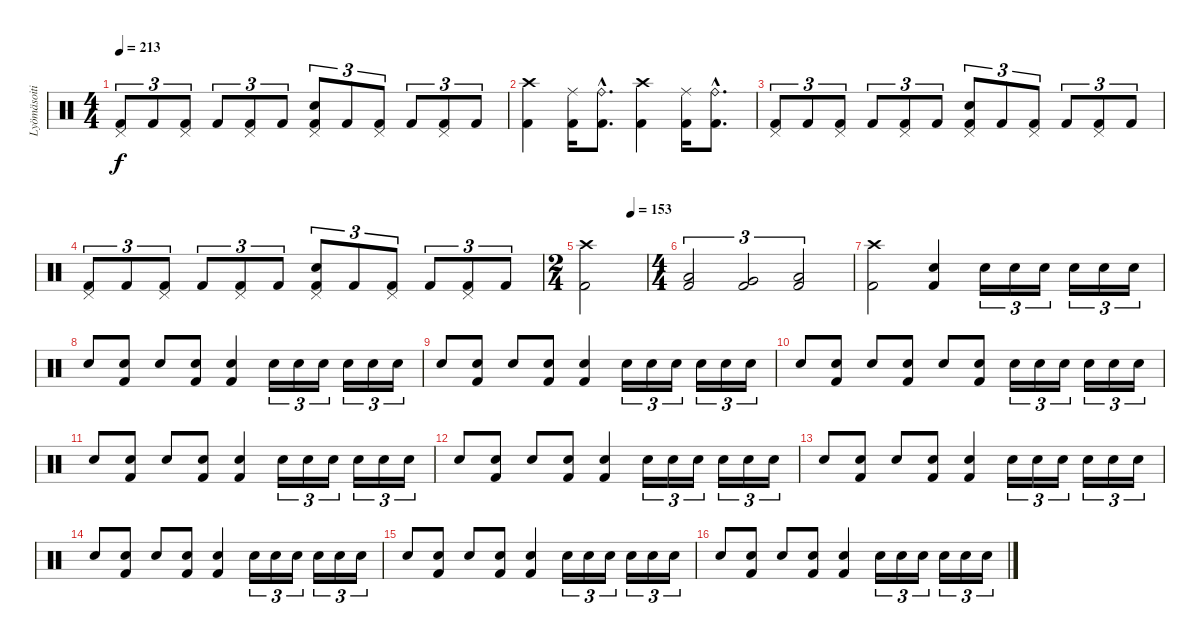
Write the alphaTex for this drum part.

\track ("Lyömäsoitin" "Lyömäsoiti") {instrument percussion}
\staff {score}
\articulation defaults
\ts (4 4)
\tempo 213
\clef neutral
\ks c
("Pedal Hi-Hat (hit)" "Kick (hit) 2").8{tu (3 2) dy f} "Kick (hit) 2".8{tu (3 2)} ("Pedal Hi-Hat (hit)" "Kick (hit) 2").8{tu (3 2)} "Kick (hit) 2".8{tu (3 2)} ("Pedal Hi-Hat (hit)" "Kick (hit) 2").8{tu (3 2)} "Kick (hit) 2".8{tu (3 2)} ("Pedal Hi-Hat (hit)" "Electric Snare (hit)" "Kick (hit) 2").8{tu (3 2)} "Kick (hit) 2".8{tu (3 2)} ("Pedal Hi-Hat (hit)" "Kick (hit) 2").8{tu (3 2)} "Kick (hit) 2".8{tu (3 2)} ("Pedal Hi-Hat (hit)" "Kick (hit) 2").8{tu (3 2)} "Kick (hit) 2".8{tu (3 2)} |
("Crash high (hit)" "Kick (hit) 2").4 ("Ride (middle)" "Kick (hit) 2").16 ("Ride (bell)"{hac} "Kick (hit) 2"{hac}).8{d} ("Crash high (hit)" "Kick (hit) 2").4 ("Ride (middle)" "Kick (hit) 2").16 ("Ride (bell)"{hac} "Kick (hit) 2"{hac}).8{d} |
("Pedal Hi-Hat (hit)" "Kick (hit) 2").8{tu (3 2)} "Kick (hit) 2".8{tu (3 2)} ("Pedal Hi-Hat (hit)" "Kick (hit) 2").8{tu (3 2)} "Kick (hit) 2".8{tu (3 2)} ("Pedal Hi-Hat (hit)" "Kick (hit) 2").8{tu (3 2)} "Kick (hit) 2".8{tu (3 2)} ("Pedal Hi-Hat (hit)" "Electric Snare (hit)" "Kick (hit) 2").8{tu (3 2)} "Kick (hit) 2".8{tu (3 2)} ("Pedal Hi-Hat (hit)" "Kick (hit) 2").8{tu (3 2)} "Kick (hit) 2".8{tu (3 2)} ("Pedal Hi-Hat (hit)" "Kick (hit) 2").8{tu (3 2)} "Kick (hit) 2".8{tu (3 2)} |
("Pedal Hi-Hat (hit)" "Kick (hit) 2").8{tu (3 2)} "Kick (hit) 2".8{tu (3 2)} ("Pedal Hi-Hat (hit)" "Kick (hit) 2").8{tu (3 2)} "Kick (hit) 2".8{tu (3 2)} ("Pedal Hi-Hat (hit)" "Kick (hit) 2").8{tu (3 2)} "Kick (hit) 2".8{tu (3 2)} ("Pedal Hi-Hat (hit)" "Electric Snare (hit)" "Kick (hit) 2").8{tu (3 2)} "Kick (hit) 2".8{tu (3 2)} ("Pedal Hi-Hat (hit)" "Kick (hit) 2").8{tu (3 2)} "Kick (hit) 2".8{tu (3 2)} ("Pedal Hi-Hat (hit)" "Kick (hit) 2").8{tu (3 2)} "Kick (hit) 2".8{tu (3 2)} |
\ts (2 4)
\tempo (153 0.75)
("Crash high (hit)" "Kick (hit) 2").2 |
\ts (4 4)
("Low Tom (hit)" "Kick (hit) 2").2{tu (3 2)} ("Very Low Tom (hit)" "Kick (hit) 2").2{tu (3 2)} ("Low Floor Tom (hit)" "Kick (hit) 2").2{tu (3 2)} |
("Crash high (hit)" "Kick (hit) 2").2 ("Electric Snare (hit)" "Kick (hit) 2").4 "Electric Snare (hit)".16{tu (3 2)} "Electric Snare (hit)".16{tu (3 2)} "Electric Snare (hit)".16{tu (3 2)} "Electric Snare (hit)".16{tu (3 2)} "Electric Snare (hit)".16{tu (3 2)} "Electric Snare (hit)".16{tu (3 2)} |
"Electric Snare (hit)".8 ("Electric Snare (hit)" "Kick (hit) 2").8 "Electric Snare (hit)".8 ("Electric Snare (hit)" "Kick (hit) 2").8 ("Electric Snare (hit)" "Kick (hit) 2").4 "Electric Snare (hit)".16{tu (3 2)} "Electric Snare (hit)".16{tu (3 2)} "Electric Snare (hit)".16{tu (3 2)} "Electric Snare (hit)".16{tu (3 2)} "Electric Snare (hit)".16{tu (3 2)} "Electric Snare (hit)".16{tu (3 2)} |
"Electric Snare (hit)".8 ("Electric Snare (hit)" "Kick (hit) 2").8 "Electric Snare (hit)".8 ("Electric Snare (hit)" "Kick (hit) 2").8 ("Electric Snare (hit)" "Kick (hit) 2").4 "Electric Snare (hit)".16{tu (3 2)} "Electric Snare (hit)".16{tu (3 2)} "Electric Snare (hit)".16{tu (3 2)} "Electric Snare (hit)".16{tu (3 2)} "Electric Snare (hit)".16{tu (3 2)} "Electric Snare (hit)".16{tu (3 2)} |
"Electric Snare (hit)".8 ("Electric Snare (hit)" "Kick (hit) 2").8 "Electric Snare (hit)".8 ("Electric Snare (hit)" "Kick (hit) 2").8 "Electric Snare (hit)".8 ("Electric Snare (hit)" "Kick (hit) 2").8 "Electric Snare (hit)".16{tu (3 2)} "Electric Snare (hit)".16{tu (3 2)} "Electric Snare (hit)".16{tu (3 2)} "Electric Snare (hit)".16{tu (3 2)} "Electric Snare (hit)".16{tu (3 2)} "Electric Snare (hit)".16{tu (3 2)} |
"Electric Snare (hit)".8 ("Electric Snare (hit)" "Kick (hit) 2").8 "Electric Snare (hit)".8 ("Electric Snare (hit)" "Kick (hit) 2").8 ("Electric Snare (hit)" "Kick (hit) 2").4 "Electric Snare (hit)".16{tu (3 2)} "Electric Snare (hit)".16{tu (3 2)} "Electric Snare (hit)".16{tu (3 2)} "Electric Snare (hit)".16{tu (3 2)} "Electric Snare (hit)".16{tu (3 2)} "Electric Snare (hit)".16{tu (3 2)} |
"Electric Snare (hit)".8 ("Electric Snare (hit)" "Kick (hit) 2").8 "Electric Snare (hit)".8 ("Electric Snare (hit)" "Kick (hit) 2").8 ("Electric Snare (hit)" "Kick (hit) 2").4 "Electric Snare (hit)".16{tu (3 2)} "Electric Snare (hit)".16{tu (3 2)} "Electric Snare (hit)".16{tu (3 2)} "Electric Snare (hit)".16{tu (3 2)} "Electric Snare (hit)".16{tu (3 2)} "Electric Snare (hit)".16{tu (3 2)} |
"Electric Snare (hit)".8 ("Electric Snare (hit)" "Kick (hit) 2").8 "Electric Snare (hit)".8 ("Electric Snare (hit)" "Kick (hit) 2").8 ("Electric Snare (hit)" "Kick (hit) 2").4 "Electric Snare (hit)".16{tu (3 2)} "Electric Snare (hit)".16{tu (3 2)} "Electric Snare (hit)".16{tu (3 2)} "Electric Snare (hit)".16{tu (3 2)} "Electric Snare (hit)".16{tu (3 2)} "Electric Snare (hit)".16{tu (3 2)} |
"Electric Snare (hit)".8 ("Electric Snare (hit)" "Kick (hit) 2").8 "Electric Snare (hit)".8 ("Electric Snare (hit)" "Kick (hit) 2").8 ("Electric Snare (hit)" "Kick (hit) 2").4 "Electric Snare (hit)".16{tu (3 2)} "Electric Snare (hit)".16{tu (3 2)} "Electric Snare (hit)".16{tu (3 2)} "Electric Snare (hit)".16{tu (3 2)} "Electric Snare (hit)".16{tu (3 2)} "Electric Snare (hit)".16{tu (3 2)} |
"Electric Snare (hit)".8 ("Electric Snare (hit)" "Kick (hit) 2").8 "Electric Snare (hit)".8 ("Electric Snare (hit)" "Kick (hit) 2").8 ("Electric Snare (hit)" "Kick (hit) 2").4 "Electric Snare (hit)".16{tu (3 2)} "Electric Snare (hit)".16{tu (3 2)} "Electric Snare (hit)".16{tu (3 2)} "Electric Snare (hit)".16{tu (3 2)} "Electric Snare (hit)".16{tu (3 2)} "Electric Snare (hit)".16{tu (3 2)} |
"Electric Snare (hit)".8 ("Electric Snare (hit)" "Kick (hit) 2").8 "Electric Snare (hit)".8 ("Electric Snare (hit)" "Kick (hit) 2").8 ("Electric Snare (hit)" "Kick (hit) 2").4 "Electric Snare (hit)".16{tu (3 2)} "Electric Snare (hit)".16{tu (3 2)} "Electric Snare (hit)".16{tu (3 2)} "Electric Snare (hit)".16{tu (3 2)} "Electric Snare (hit)".16{tu (3 2)} "Electric Snare (hit)".16{tu (3 2)}
